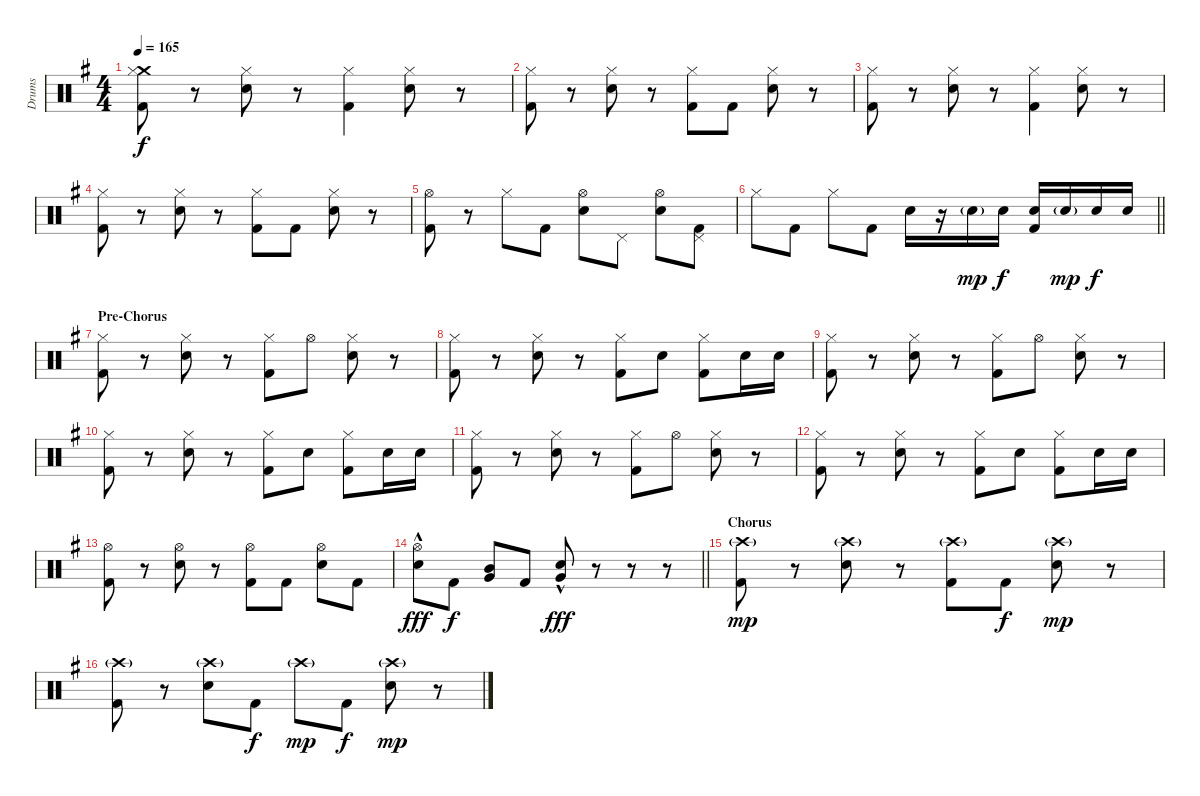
\track ("Drums" "Drums") {instrument percussion}
\staff {score}
\articulation defaults
\ts (4 4)
\tempo 165
\clef neutral
\ks eminor
("Crash medium (hit)" "Hi-Hat (closed)" "Kick (hit) 2").8{dy f} r.8 ("Hi-Hat (closed)" "Electric Snare (hit)").8 r.8 ("Hi-Hat (closed)" "Kick (hit) 2").4 ("Hi-Hat (closed)" "Electric Snare (hit)").8 r.8 |
("Hi-Hat (closed)" "Kick (hit) 2").8 r.8 ("Hi-Hat (closed)" "Electric Snare (hit)").8 r.8 ("Hi-Hat (closed)" "Kick (hit) 2").8 "Kick (hit) 2".8 ("Hi-Hat (closed)" "Electric Snare (hit)").8 r.8 |
("Hi-Hat (closed)" "Kick (hit) 2").8 r.8 ("Hi-Hat (closed)" "Electric Snare (hit)").8 r.8 ("Hi-Hat (closed)" "Kick (hit) 2").4 ("Hi-Hat (closed)" "Electric Snare (hit)").8 r.8 |
("Hi-Hat (closed)" "Kick (hit) 2").8 r.8 ("Hi-Hat (closed)" "Electric Snare (hit)").8 r.8 ("Hi-Hat (closed)" "Kick (hit) 2").8 "Kick (hit) 2".8 ("Hi-Hat (closed)" "Electric Snare (hit)").8 r.8 |
("Hi-Hat (open)" "Kick (hit) 2").8 r.8 "Hi-Hat (closed)".8 "Kick (hit) 2".8 ("Hi-Hat (open)" "Electric Snare (hit)").8 "Pedal Hi-Hat (hit)".8 ("Hi-Hat (open)" "Electric Snare (hit)").8 ("Pedal Hi-Hat (hit)" "Kick (hit) 2").8 |
\barLineRight lightlight "Hi-Hat (closed)".8 "Kick (hit) 2".8 "Hi-Hat (closed)".8 "Kick (hit) 2".8 "Electric Snare (hit)".16
r.16 "Electric Snare (hit)"{g}.16{dy mp} "Electric Snare (hit)".16{dy f} ("Electric Snare (hit)" "Kick (hit) 2").16 "Electric Snare (hit)"{g}.16{dy mp} "Electric Snare (hit)".16{dy f} "Electric Snare (hit)".16 |
\section ("" "Pre-Chorus")
("Hi-Hat (closed)" "Kick (hit) 2").8 r.8 ("Hi-Hat (closed)" "Electric Snare (hit)").8 r.8 ("Hi-Hat (closed)" "Kick (hit) 2").8 "Hi-Hat (open)".8 ("Hi-Hat (closed)" "Electric Snare (hit)").8 r.8 |
("Hi-Hat (closed)" "Kick (hit) 2").8 r.8 ("Hi-Hat (closed)" "Electric Snare (hit)").8 r.8 ("Hi-Hat (closed)" "Kick (hit) 2").8 "Electric Snare (hit)".8 ("Hi-Hat (closed)" "Kick (hit) 2").8 "Electric Snare (hit)".16 "Electric Snare (hit)".16 |
("Hi-Hat (closed)" "Kick (hit) 2").8 r.8 ("Hi-Hat (closed)" "Electric Snare (hit)").8 r.8 ("Hi-Hat (closed)" "Kick (hit) 2").8 "Hi-Hat (open)".8 ("Hi-Hat (closed)" "Electric Snare (hit)").8 r.8 |
("Hi-Hat (closed)" "Kick (hit) 2").8 r.8 ("Hi-Hat (closed)" "Electric Snare (hit)").8 r.8 ("Hi-Hat (closed)" "Kick (hit) 2").8 "Electric Snare (hit)".8 ("Hi-Hat (closed)" "Kick (hit) 2").8 "Electric Snare (hit)".16 "Electric Snare (hit)".16 |
("Hi-Hat (closed)" "Kick (hit) 2").8 r.8 ("Hi-Hat (closed)" "Electric Snare (hit)").8 r.8 ("Hi-Hat (closed)" "Kick (hit) 2").8 "Hi-Hat (open)".8 ("Hi-Hat (closed)" "Electric Snare (hit)").8 r.8 |
("Hi-Hat (closed)" "Kick (hit) 2").8 r.8 ("Hi-Hat (closed)" "Electric Snare (hit)").8 r.8 ("Hi-Hat (closed)" "Kick (hit) 2").8 "Electric Snare (hit)".8 ("Hi-Hat (closed)" "Kick (hit) 2").8 "Electric Snare (hit)".16 "Electric Snare (hit)".16 |
("Hi-Hat (open)" "Kick (hit) 2").8 r.8 ("Hi-Hat (open)" "Electric Snare (hit)").8 r.8 ("Hi-Hat (open)" "Kick (hit) 2").8 "Kick (hit) 2".8 ("Hi-Hat (open)" "Electric Snare (hit)").8 "Kick (hit) 2".8 |
\barLineRight lightlight
("Hi-Hat (open)" "Electric Snare (hit)"{hac}).8{dy fff} "Kick (hit) 2".8{dy f} ("Mid Tom (hit)" "Very Low Tom (hit)").8 "Kick (hit) 2".8 ("Very Low Tom (hit)"{hac} "Electric Snare (hit)"{hac}).8{dy fff} r.8 r.8 r.8 |
\section ("" "Chorus")
("Crash high (hit)"{g} "Kick (hit) 2").8{dy mp} r.8 ("Crash high (hit)"{g} "Electric Snare (hit)").8 r.8 ("Crash high (hit)"{g} "Kick (hit) 2").8 "Kick (hit) 2".8{dy f} ("Crash high (hit)"{g} "Electric Snare (hit)").8{dy mp} r.8 |
("Crash high (hit)"{g} "Kick (hit) 2").8 r.8 ("Crash high (hit)"{g} "Electric Snare (hit)").8 "Kick (hit) 2".8{dy f} "Crash high (hit)"{g}.8{dy mp} "Kick (hit) 2".8{dy f} ("Crash high (hit)"{g} "Electric Snare (hit)").8{dy mp} r.8
